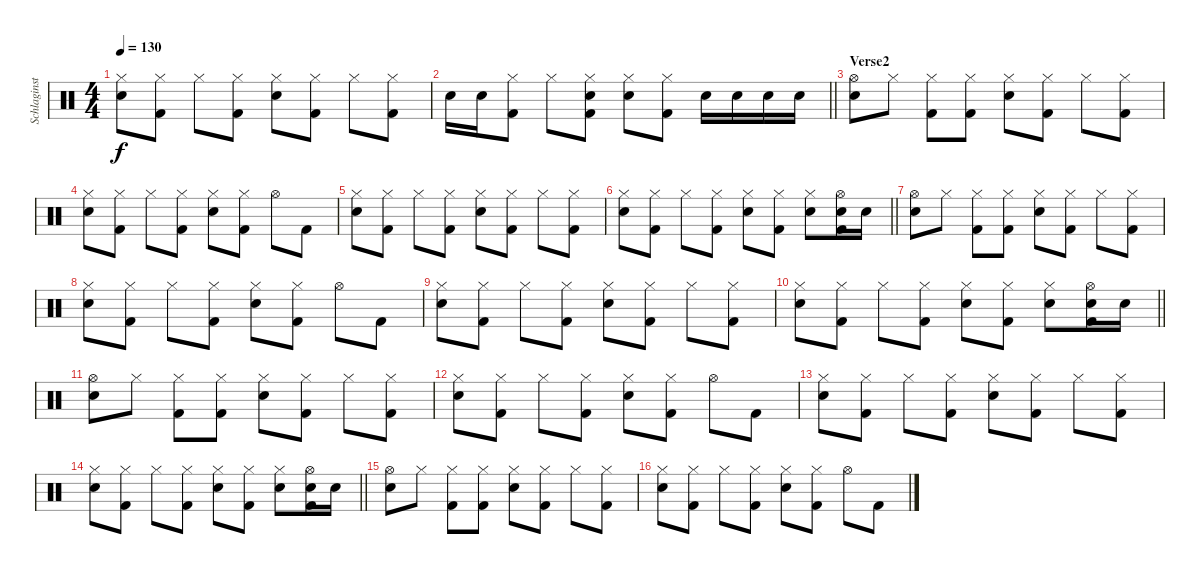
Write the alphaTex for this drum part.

\track ("Schlaginstrumente - Auswahl" "Schlaginst") {instrument percussion}
\staff {score}
\articulation defaults
\ts (4 4)
\tempo 130
\clef neutral
\ks c
("Hi-Hat (closed)" "Snare (hit) 2").8{dy f} ("Hi-Hat (closed)" "Kick (hit) 2").8 "Hi-Hat (closed)".8 ("Hi-Hat (closed)" "Kick (hit) 2").8 ("Hi-Hat (closed)" "Snare (hit) 2").8 ("Hi-Hat (closed)" "Kick (hit) 2").8 "Hi-Hat (closed)".8 ("Hi-Hat (closed)" "Kick (hit) 2").8 |
\barLineRight lightlight "Snare (hit) 2".16 "Snare (hit) 2".16
("Hi-Hat (closed)" "Kick (hit) 2").8 "Hi-Hat (closed)".8 ("Hi-Hat (closed)" "Snare (hit) 2" "Kick (hit) 2").8 ("Hi-Hat (closed)" "Snare (hit) 2").8 ("Hi-Hat (closed)" "Kick (hit) 2").8 "Snare (hit) 2".16 "Snare (hit) 2".16 "Snare (hit) 2".16 "Snare (hit) 2".16 |
\section ("" "Verse2")
("Hi-Hat (open)" "Snare (hit) 2").8 "Hi-Hat (closed)".8 ("Hi-Hat (closed)" "Kick (hit) 2").8 ("Hi-Hat (closed)" "Kick (hit) 2").8 ("Hi-Hat (closed)" "Snare (hit) 2").8 ("Hi-Hat (closed)" "Kick (hit) 2").8 "Hi-Hat (closed)".8 ("Hi-Hat (closed)" "Kick (hit) 2").8 |
("Hi-Hat (closed)" "Snare (hit) 2").8 ("Hi-Hat (closed)" "Kick (hit) 2").8 "Hi-Hat (closed)".8 ("Hi-Hat (closed)" "Kick (hit) 2").8 ("Hi-Hat (closed)" "Snare (hit) 2").8 ("Hi-Hat (closed)" "Kick (hit) 2").8 "Hi-Hat (open)".8 "Kick (hit) 2".8 |
("Hi-Hat (closed)" "Snare (hit) 2").8 ("Hi-Hat (closed)" "Kick (hit) 2").8 "Hi-Hat (closed)".8 ("Hi-Hat (closed)" "Kick (hit) 2").8 ("Hi-Hat (closed)" "Snare (hit) 2").8 ("Hi-Hat (closed)" "Kick (hit) 2").8 "Hi-Hat (closed)".8 ("Hi-Hat (closed)" "Kick (hit) 2").8 |
\barLineRight lightlight
("Hi-Hat (closed)" "Snare (hit) 2").8 ("Hi-Hat (closed)" "Kick (hit) 2").8 "Hi-Hat (closed)".8 ("Hi-Hat (closed)" "Kick (hit) 2").8 ("Hi-Hat (closed)" "Snare (hit) 2").8 ("Hi-Hat (closed)" "Kick (hit) 2").8 ("Hi-Hat (closed)" "Snare (hit) 2").8 ("Hi-Hat (open)" "Snare (hit) 2" "Kick (hit) 2").16 "Snare (hit) 2".16 |
("Hi-Hat (open)" "Snare (hit) 2").8 "Hi-Hat (closed)".8 ("Hi-Hat (closed)" "Kick (hit) 2").8 ("Hi-Hat (closed)" "Kick (hit) 2").8 ("Hi-Hat (closed)" "Snare (hit) 2").8 ("Hi-Hat (closed)" "Kick (hit) 2").8 "Hi-Hat (closed)".8 ("Hi-Hat (closed)" "Kick (hit) 2").8 |
("Hi-Hat (closed)" "Snare (hit) 2").8 ("Hi-Hat (closed)" "Kick (hit) 2").8 "Hi-Hat (closed)".8 ("Hi-Hat (closed)" "Kick (hit) 2").8 ("Hi-Hat (closed)" "Snare (hit) 2").8 ("Hi-Hat (closed)" "Kick (hit) 2").8 "Hi-Hat (open)".8 "Kick (hit) 2".8 |
("Hi-Hat (closed)" "Snare (hit) 2").8 ("Hi-Hat (closed)" "Kick (hit) 2").8 "Hi-Hat (closed)".8 ("Hi-Hat (closed)" "Kick (hit) 2").8 ("Hi-Hat (closed)" "Snare (hit) 2").8 ("Hi-Hat (closed)" "Kick (hit) 2").8 "Hi-Hat (closed)".8 ("Hi-Hat (closed)" "Kick (hit) 2").8 |
\barLineRight lightlight
("Hi-Hat (closed)" "Snare (hit) 2").8 ("Hi-Hat (closed)" "Kick (hit) 2").8 "Hi-Hat (closed)".8 ("Hi-Hat (closed)" "Kick (hit) 2").8 ("Hi-Hat (closed)" "Snare (hit) 2").8 ("Hi-Hat (closed)" "Kick (hit) 2").8 ("Hi-Hat (closed)" "Snare (hit) 2").8 ("Hi-Hat (open)" "Snare (hit) 2" "Kick (hit) 2").16 "Snare (hit) 2".16 |
("Hi-Hat (open)" "Snare (hit) 2").8 "Hi-Hat (closed)".8 ("Hi-Hat (closed)" "Kick (hit) 2").8 ("Hi-Hat (closed)" "Kick (hit) 2").8 ("Hi-Hat (closed)" "Snare (hit) 2").8 ("Hi-Hat (closed)" "Kick (hit) 2").8 "Hi-Hat (closed)".8 ("Hi-Hat (closed)" "Kick (hit) 2").8 |
("Hi-Hat (closed)" "Snare (hit) 2").8 ("Hi-Hat (closed)" "Kick (hit) 2").8 "Hi-Hat (closed)".8 ("Hi-Hat (closed)" "Kick (hit) 2").8 ("Hi-Hat (closed)" "Snare (hit) 2").8 ("Hi-Hat (closed)" "Kick (hit) 2").8 "Hi-Hat (open)".8 "Kick (hit) 2".8 |
("Hi-Hat (closed)" "Snare (hit) 2").8 ("Hi-Hat (closed)" "Kick (hit) 2").8 "Hi-Hat (closed)".8 ("Hi-Hat (closed)" "Kick (hit) 2").8 ("Hi-Hat (closed)" "Snare (hit) 2").8 ("Hi-Hat (closed)" "Kick (hit) 2").8 "Hi-Hat (closed)".8 ("Hi-Hat (closed)" "Kick (hit) 2").8 |
\barLineRight lightlight
("Hi-Hat (closed)" "Snare (hit) 2").8 ("Hi-Hat (closed)" "Kick (hit) 2").8 "Hi-Hat (closed)".8 ("Hi-Hat (closed)" "Kick (hit) 2").8 ("Hi-Hat (closed)" "Snare (hit) 2").8 ("Hi-Hat (closed)" "Kick (hit) 2").8 ("Hi-Hat (closed)" "Snare (hit) 2").8 ("Hi-Hat (open)" "Snare (hit) 2" "Kick (hit) 2").16 "Snare (hit) 2".16 |
("Hi-Hat (open)" "Snare (hit) 2").8 "Hi-Hat (closed)".8 ("Hi-Hat (closed)" "Kick (hit) 2").8 ("Hi-Hat (closed)" "Kick (hit) 2").8 ("Hi-Hat (closed)" "Snare (hit) 2").8 ("Hi-Hat (closed)" "Kick (hit) 2").8 "Hi-Hat (closed)".8 ("Hi-Hat (closed)" "Kick (hit) 2").8 |
("Hi-Hat (closed)" "Snare (hit) 2").8 ("Hi-Hat (closed)" "Kick (hit) 2").8 "Hi-Hat (closed)".8 ("Hi-Hat (closed)" "Kick (hit) 2").8 ("Hi-Hat (closed)" "Snare (hit) 2").8 ("Hi-Hat (closed)" "Kick (hit) 2").8 "Hi-Hat (open)".8 "Kick (hit) 2".8
